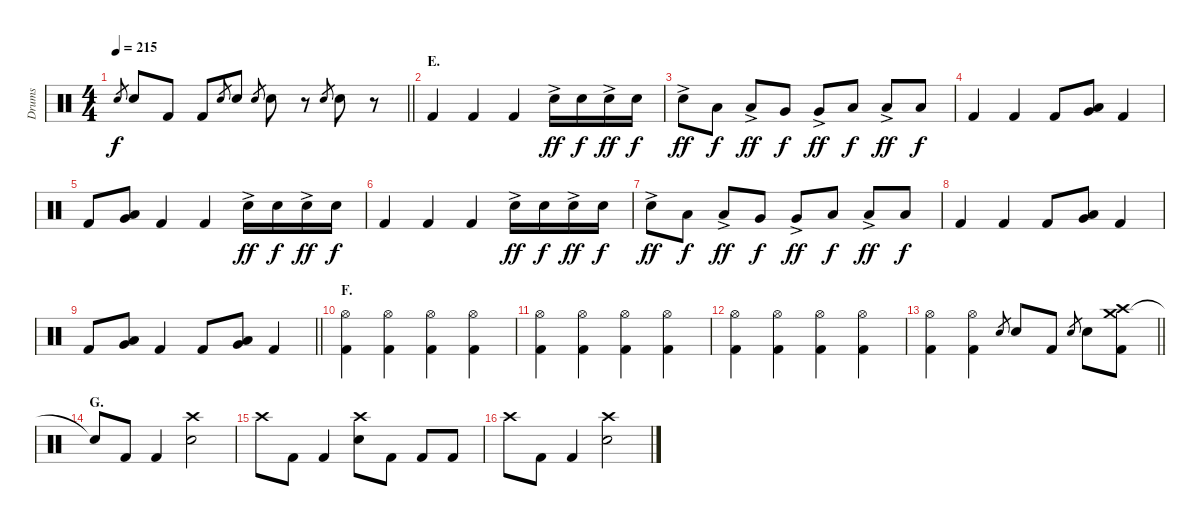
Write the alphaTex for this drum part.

\track ("Drums" "Drums") {instrument percussion}
\staff {score}
\articulation defaults
\ts (4 4)
\tempo 215
\clef neutral
\barLineRight lightlight
\ks c "Electric Snare (hit)".8{gr dy f} "Electric Snare (hit)".8 "Kick (hit) 2".8 "Kick (hit) 2".8 "Electric Snare (hit)".8{gr} "Electric Snare (hit)".8 "Electric Snare (hit)".8{gr} "Electric Snare (hit)".8
r.8 "Electric Snare (hit)".8{gr} "Electric Snare (hit)".8 r.8 |
\section ("" "E.")
"Kick (hit) 2".4 "Kick (hit) 2".4 "Kick (hit) 2".4 "Electric Snare (hit)"{ac}.16{dy ff} "Electric Snare (hit)".16{dy f} "Electric Snare (hit)"{ac}.16{dy ff} "Electric Snare (hit)".16{dy f} |
"Electric Snare (hit)"{ac}.8{dy ff} "Low Tom (hit)".8{dy f} "Low Tom (hit)"{ac}.8{dy ff} "Very Low Tom (hit)".8{dy f} "Very Low Tom (hit)"{ac}.8{dy ff} "Low Floor Tom (hit)".8{dy f} "Low Floor Tom (hit)"{ac}.8{dy ff} "Low Floor Tom (hit)".8{dy f} |
"Kick (hit) 2".4 "Kick (hit) 2".4 "Kick (hit) 2".8 ("Very Low Tom (hit)" "Low Floor Tom (hit)").8{bu 120} "Kick (hit) 2".4 |
"Kick (hit) 2".8 ("Very Low Tom (hit)" "Low Floor Tom (hit)").8{bu 120} "Kick (hit) 2".4 "Kick (hit) 2".4 "Electric Snare (hit)"{ac}.16{dy ff} "Electric Snare (hit)".16{dy f} "Electric Snare (hit)"{ac}.16{dy ff} "Electric Snare (hit)".16{dy f} |
"Kick (hit) 2".4 "Kick (hit) 2".4 "Kick (hit) 2".4 "Electric Snare (hit)"{ac}.16{dy ff} "Electric Snare (hit)".16{dy f} "Electric Snare (hit)"{ac}.16{dy ff} "Electric Snare (hit)".16{dy f} |
"Electric Snare (hit)"{ac}.8{dy ff} "Low Tom (hit)".8{dy f} "Low Tom (hit)"{ac}.8{dy ff} "Very Low Tom (hit)".8{dy f} "Very Low Tom (hit)"{ac}.8{dy ff} "Low Floor Tom (hit)".8{dy f} "Low Floor Tom (hit)"{ac}.8{dy ff} "Low Floor Tom (hit)".8{dy f} |
"Kick (hit) 2".4 "Kick (hit) 2".4 "Kick (hit) 2".8 ("Very Low Tom (hit)" "Low Floor Tom (hit)").8{bu 120} "Kick (hit) 2".4 |
\barLineRight lightlight "Kick (hit) 2".8
("Very Low Tom (hit)" "Low Floor Tom (hit)").8{bu 120} "Kick (hit) 2".4 "Kick (hit) 2".8 ("Very Low Tom (hit)" "Low Floor Tom (hit)").8{bu 120} "Kick (hit) 2".4 |
\section ("" "F.")
("Hi-Hat (open)" "Kick (hit) 2").4 ("Hi-Hat (open)" "Kick (hit) 2").4 ("Hi-Hat (open)" "Kick (hit) 2").4 ("Hi-Hat (open)" "Kick (hit) 2").4 |
("Hi-Hat (open)" "Kick (hit) 2").4 ("Hi-Hat (open)" "Kick (hit) 2").4 ("Hi-Hat (open)" "Kick (hit) 2").4 ("Hi-Hat (open)" "Kick (hit) 2").4 |
("Hi-Hat (open)" "Kick (hit) 2").4 ("Hi-Hat (open)" "Kick (hit) 2").4 ("Hi-Hat (open)" "Kick (hit) 2").4 ("Hi-Hat (open)" "Kick (hit) 2").4 |
\barLineRight lightlight
("Hi-Hat (open)" "Kick (hit) 2").4 ("Hi-Hat (open)" "Kick (hit) 2").4 "Electric Snare (hit)".8{gr} "Electric Snare (hit)".8 "Kick (hit) 2".8 "Electric Snare (hit)".8{gr} "Electric Snare (hit)".8 ("Crash medium (hit)" "Crash high (hit)" "Kick (hit) 2").8 |
\section ("" "G.")
"Snare (hit)"{t}.8 "Kick (hit) 2".8 "Kick (hit) 2".4 ("Crash high (hit)" "Electric Snare (hit)").2 |
"Crash high (hit)".8 "Kick (hit) 2".8 "Kick (hit) 2".4 ("Crash high (hit)" "Electric Snare (hit)").8 "Kick (hit) 2".8 "Kick (hit) 2".8 "Kick (hit) 2".8 |
"Crash high (hit)".8 "Kick (hit) 2".8 "Kick (hit) 2".4 ("Crash high (hit)" "Electric Snare (hit)").2
